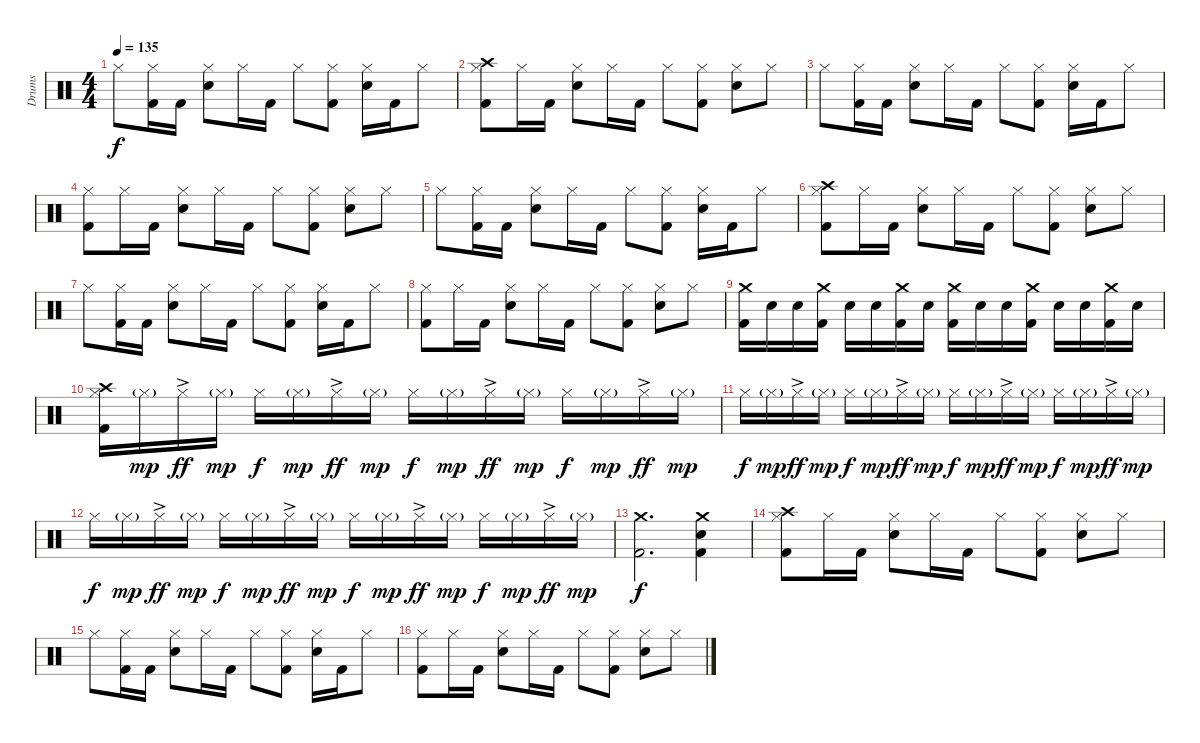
\track ("Drums" "Drums") {instrument percussion}
\staff {score}
\articulation defaults
\ts (4 4)
\tempo 135
\clef neutral
\ks c "Hi-Hat (closed)".8{dy f}
("Hi-Hat (closed)" "Kick (hit) 2").16 "Kick (hit) 2".16 ("Hi-Hat (closed)" "Snare (hit) 2").8 "Hi-Hat (closed)".16 "Kick (hit) 2".16 "Hi-Hat (closed)".8 ("Hi-Hat (closed)" "Kick (hit) 2").8 ("Hi-Hat (closed)" "Snare (hit) 2").16 "Kick (hit) 2".16 "Hi-Hat (closed)".8 |
("Hi-Hat (closed)" "Crash high (hit)" "Kick (hit) 2").8 "Hi-Hat (closed)".16 "Kick (hit) 2".16 ("Hi-Hat (closed)" "Snare (hit) 2").8 "Hi-Hat (closed)".16 "Kick (hit) 2".16 "Hi-Hat (closed)".8 ("Hi-Hat (closed)" "Kick (hit) 2").8 ("Hi-Hat (closed)" "Snare (hit) 2").8 "Hi-Hat (closed)".8 |
"Hi-Hat (closed)".8 ("Hi-Hat (closed)" "Kick (hit) 2").16 "Kick (hit) 2".16 ("Hi-Hat (closed)" "Snare (hit) 2").8 "Hi-Hat (closed)".16 "Kick (hit) 2".16 "Hi-Hat (closed)".8 ("Hi-Hat (closed)" "Kick (hit) 2").8 ("Hi-Hat (closed)" "Snare (hit) 2").16 "Kick (hit) 2".16 "Hi-Hat (closed)".8 |
("Hi-Hat (closed)" "Kick (hit) 2").8 "Hi-Hat (closed)".16 "Kick (hit) 2".16 ("Hi-Hat (closed)" "Snare (hit) 2").8 "Hi-Hat (closed)".16 "Kick (hit) 2".16 "Hi-Hat (closed)".8 ("Hi-Hat (closed)" "Kick (hit) 2").8 ("Hi-Hat (closed)" "Snare (hit) 2").8 "Hi-Hat (closed)".8 |
"Hi-Hat (closed)".8 ("Hi-Hat (closed)" "Kick (hit) 2").16 "Kick (hit) 2".16 ("Hi-Hat (closed)" "Snare (hit) 2").8 "Hi-Hat (closed)".16 "Kick (hit) 2".16 "Hi-Hat (closed)".8 ("Hi-Hat (closed)" "Kick (hit) 2").8 ("Hi-Hat (closed)" "Snare (hit) 2").16 "Kick (hit) 2".16 "Hi-Hat (closed)".8 |
("Hi-Hat (closed)" "Crash high (hit)" "Kick (hit) 2").8 "Hi-Hat (closed)".16 "Kick (hit) 2".16 ("Hi-Hat (closed)" "Snare (hit) 2").8 "Hi-Hat (closed)".16 "Kick (hit) 2".16 "Hi-Hat (closed)".8 ("Hi-Hat (closed)" "Kick (hit) 2").8 ("Hi-Hat (closed)" "Snare (hit) 2").8 "Hi-Hat (closed)".8 |
"Hi-Hat (closed)".8 ("Hi-Hat (closed)" "Kick (hit) 2").16 "Kick (hit) 2".16 ("Hi-Hat (closed)" "Snare (hit) 2").8 "Hi-Hat (closed)".16 "Kick (hit) 2".16 "Hi-Hat (closed)".8 ("Hi-Hat (closed)" "Kick (hit) 2").8 ("Hi-Hat (closed)" "Snare (hit) 2").16 "Kick (hit) 2".16 "Hi-Hat (closed)".8 |
("Hi-Hat (closed)" "Kick (hit) 2").8 "Hi-Hat (closed)".16 "Kick (hit) 2".16 ("Hi-Hat (closed)" "Snare (hit) 2").8 "Hi-Hat (closed)".16 "Kick (hit) 2".16 "Hi-Hat (closed)".8 ("Hi-Hat (closed)" "Kick (hit) 2").8 ("Hi-Hat (closed)" "Snare (hit) 2").8 "Hi-Hat (closed)".8 |
("Crash medium (hit)" "Kick (hit) 2").16 "Snare (hit) 2".16 "Snare (hit) 2".16 ("Crash medium (hit)" "Kick (hit) 2").16 "Snare (hit) 2".16 "Snare (hit) 2".16 ("Crash medium (hit)" "Kick (hit) 2").16 "Snare (hit) 2".16 ("Crash medium (hit)" "Kick (hit) 2").16 "Snare (hit) 2".16 "Snare (hit) 2".16 ("Crash medium (hit)" "Kick (hit) 2").16 "Snare (hit) 2".16 "Snare (hit) 2".16 ("Crash medium (hit)" "Kick (hit) 2").16 "Snare (hit) 2".16 |
("Hi-Hat (closed)" "Crash high (hit)" "Kick (hit) 2").16 "Hi-Hat (closed)"{g}.16{dy mp} "Hi-Hat (closed)"{ac}.16{dy ff} "Hi-Hat (closed)"{g}.16{dy mp} "Hi-Hat (closed)".16{dy f} "Hi-Hat (closed)"{g}.16{dy mp} "Hi-Hat (closed)"{ac}.16{dy ff} "Hi-Hat (closed)"{g}.16{dy mp} "Hi-Hat (closed)".16{dy f} "Hi-Hat (closed)"{g}.16{dy mp} "Hi-Hat (closed)"{ac}.16{dy ff} "Hi-Hat (closed)"{g}.16{dy mp} "Hi-Hat (closed)".16{dy f} "Hi-Hat (closed)"{g}.16{dy mp} "Hi-Hat (closed)"{ac}.16{dy ff} "Hi-Hat (closed)"{g}.16{dy mp} |
"Hi-Hat (closed)".16{dy f} "Hi-Hat (closed)"{g}.16{dy mp} "Hi-Hat (closed)"{ac}.16{dy ff} "Hi-Hat (closed)"{g}.16{dy mp} "Hi-Hat (closed)".16{dy f} "Hi-Hat (closed)"{g}.16{dy mp} "Hi-Hat (closed)"{ac}.16{dy ff} "Hi-Hat (closed)"{g}.16{dy mp} "Hi-Hat (closed)".16{dy f} "Hi-Hat (closed)"{g}.16{dy mp} "Hi-Hat (closed)"{ac}.16{dy ff} "Hi-Hat (closed)"{g}.16{dy mp} "Hi-Hat (closed)".16{dy f} "Hi-Hat (closed)"{g}.16{dy mp} "Hi-Hat (closed)"{ac}.16{dy ff} "Hi-Hat (closed)"{g}.16{dy mp} |
"Hi-Hat (closed)".16{dy f} "Hi-Hat (closed)"{g}.16{dy mp} "Hi-Hat (closed)"{ac}.16{dy ff} "Hi-Hat (closed)"{g}.16{dy mp} "Hi-Hat (closed)".16{dy f} "Hi-Hat (closed)"{g}.16{dy mp} "Hi-Hat (closed)"{ac}.16{dy ff} "Hi-Hat (closed)"{g}.16{dy mp} "Hi-Hat (closed)".16{dy f} "Hi-Hat (closed)"{g}.16{dy mp} "Hi-Hat (closed)"{ac}.16{dy ff} "Hi-Hat (closed)"{g}.16{dy mp} "Hi-Hat (closed)".16{dy f} "Hi-Hat (closed)"{g}.16{dy mp} "Hi-Hat (closed)"{ac}.16{dy ff} "Hi-Hat (closed)"{g}.16{dy mp} |
("Crash medium (hit)" "Kick (hit) 2").2{d dy f} ("Crash medium (hit)" "Snare (hit) 2" "Kick (hit) 2").4 |
("Hi-Hat (closed)" "Crash high (hit)" "Kick (hit) 2").8 "Hi-Hat (closed)".16 "Kick (hit) 2".16 ("Hi-Hat (closed)" "Snare (hit) 2").8 "Hi-Hat (closed)".16 "Kick (hit) 2".16 "Hi-Hat (closed)".8 ("Hi-Hat (closed)" "Kick (hit) 2").8 ("Hi-Hat (closed)" "Snare (hit) 2").8 "Hi-Hat (closed)".8 |
"Hi-Hat (closed)".8 ("Hi-Hat (closed)" "Kick (hit) 2").16 "Kick (hit) 2".16 ("Hi-Hat (closed)" "Snare (hit) 2").8 "Hi-Hat (closed)".16 "Kick (hit) 2".16 "Hi-Hat (closed)".8 ("Hi-Hat (closed)" "Kick (hit) 2").8 ("Hi-Hat (closed)" "Snare (hit) 2").16 "Kick (hit) 2".16 "Hi-Hat (closed)".8 |
("Hi-Hat (closed)" "Kick (hit) 2").8 "Hi-Hat (closed)".16 "Kick (hit) 2".16 ("Hi-Hat (closed)" "Snare (hit) 2").8 "Hi-Hat (closed)".16 "Kick (hit) 2".16 "Hi-Hat (closed)".8 ("Hi-Hat (closed)" "Kick (hit) 2").8 ("Hi-Hat (closed)" "Snare (hit) 2").8 "Hi-Hat (closed)".8
